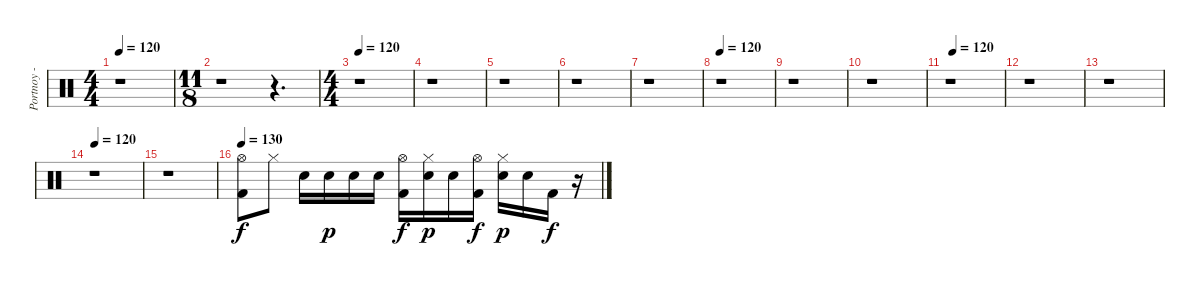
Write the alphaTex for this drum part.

\track ("Portnoy - Drums" "Portnoy - ") {instrument percussion}
\staff {score}
\articulation defaults
\ts (4 4)
\tempo 120
\clef neutral
\ks c
r.1{dy p} |
\ts (11 8)
r.1 r.4{d} |
\ts (4 4)
\tempo 120
r.1 |
r.1 |
r.1 |
r.1 |
r.1 |
\tempo 120
r.1 |
r.1 |
r.1 |
\tempo (120 0.0625)
r.1 |
r.1 |
r.1 |
\tempo (120 0.03125)
r.1 |
r.1 |
\tempo 130
("Kick (hit) 2" "Hi-Hat (open)").8{dy f} "Hi-Hat (closed)".8 "Electric Snare (hit)".16 "Electric Snare (hit)".16{dy p} "Electric Snare (hit)".16 "Electric Snare (hit)".16 ("Kick (hit) 2" "Hi-Hat (open)").16{dy f} ("Hi-Hat (closed)" "Electric Snare (hit)").16{dy p} "Electric Snare (hit)".16 ("Kick (hit) 2" "Hi-Hat (open)").16{dy f} ("Hi-Hat (closed)" "Electric Snare (hit)").16{dy p} "Electric Snare (hit)".16 "Kick (hit) 2".16{dy f} r.16
